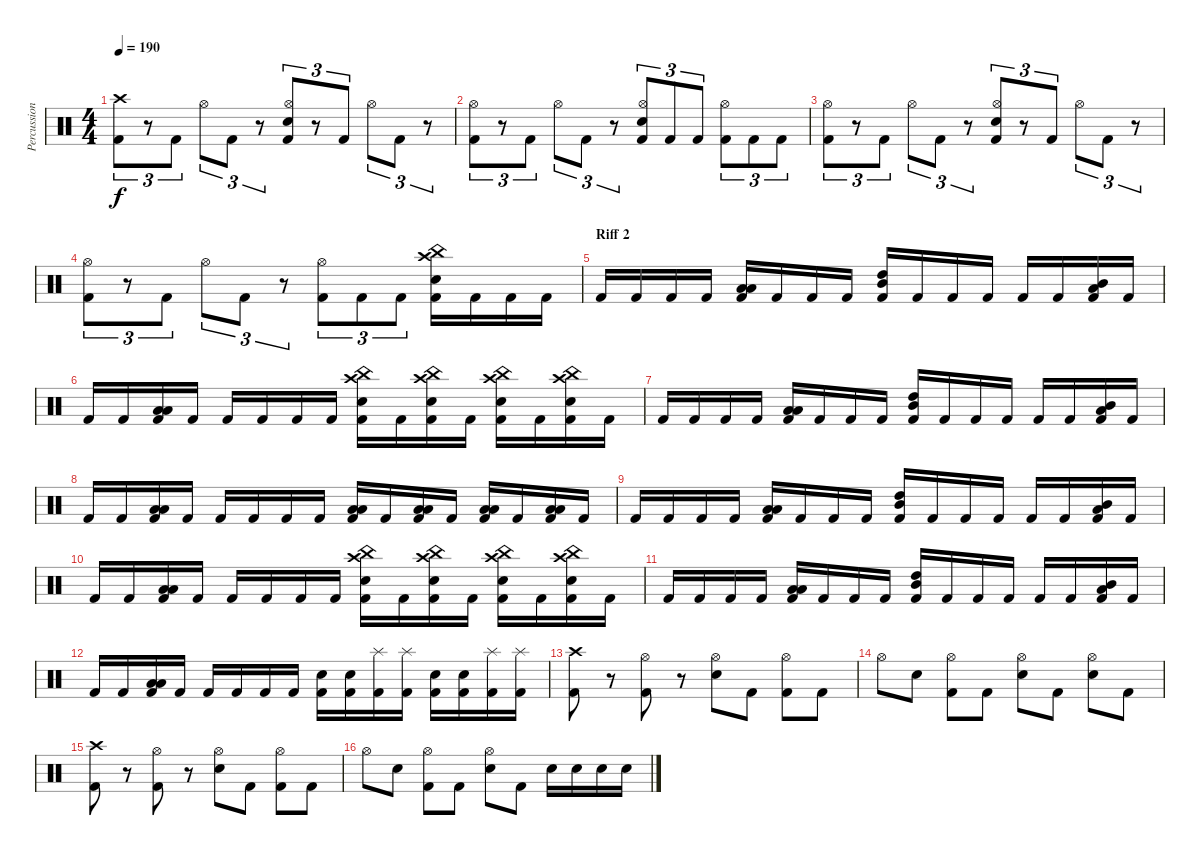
\track ("Percussion" "Percussion") {instrument percussion}
\staff {score}
\articulation defaults
\ts (4 4)
\tempo 190
\clef neutral
\ks c
("Crash high (hit)" "Kick (hit) 2").8{tu (3 2) dy f} r.8{tu (3 2)} "Kick (hit) 2".8{tu (3 2)} "Hi-Hat (open)".8{tu (3 2)} "Kick (hit) 2".8{tu (3 2)} r.8{tu (3 2)} ("Hi-Hat (open)" "Electric Snare (hit)" "Kick (hit) 2").8{tu (3 2)} r.8{tu (3 2)} "Kick (hit) 2".8{tu (3 2)} "Hi-Hat (open)".8{tu (3 2)} "Kick (hit) 2".8{tu (3 2)} r.8{tu (3 2)} |
("Hi-Hat (open)" "Kick (hit) 2").8{tu (3 2)} r.8{tu (3 2)} "Kick (hit) 2".8{tu (3 2)} "Hi-Hat (open)".8{tu (3 2)} "Kick (hit) 2".8{tu (3 2)} r.8{tu (3 2)} ("Hi-Hat (open)" "Electric Snare (hit)" "Kick (hit) 2").8{tu (3 2)} "Kick (hit) 2".8{tu (3 2)} "Kick (hit) 2".8{tu (3 2)} ("Hi-Hat (open)" "Kick (hit) 2").8{tu (3 2)} "Kick (hit) 2".8{tu (3 2)} "Kick (hit) 2".8{tu (3 2)} |
("Hi-Hat (open)" "Kick (hit) 2").8{tu (3 2)} r.8{tu (3 2)} "Kick (hit) 2".8{tu (3 2)} "Hi-Hat (open)".8{tu (3 2)} "Kick (hit) 2".8{tu (3 2)} r.8{tu (3 2)} ("Hi-Hat (open)" "Electric Snare (hit)" "Kick (hit) 2").8{tu (3 2)} r.8{tu (3 2)} "Kick (hit) 2".8{tu (3 2)} "Hi-Hat (open)".8{tu (3 2)} "Kick (hit) 2".8{tu (3 2)} r.8{tu (3 2)} |
("Hi-Hat (open)" "Kick (hit) 2").8{tu (3 2)} r.8{tu (3 2)} "Kick (hit) 2".8{tu (3 2)} "Hi-Hat (open)".8{tu (3 2)} "Kick (hit) 2".8{tu (3 2)} r.8{tu (3 2)} ("Hi-Hat (open)" "Kick (hit) 2").8{tu (3 2)} "Kick (hit) 2".8{tu (3 2)} "Kick (hit) 2".8{tu (3 2)} ("China (hit)" "Crash high (hit)" "Electric Snare (hit)" "Kick (hit) 2").16 "Kick (hit) 2".16 "Kick (hit) 2".16 "Kick (hit) 2".16 |
\section ("" "Riff 2")
"Kick (hit) 2".16 "Kick (hit) 2".16 "Kick (hit) 2".16 "Kick (hit) 2".16 ("Low Tom (hit)" "Low Floor Tom (hit)" "Kick (hit) 2").16 "Kick (hit) 2".16 "Kick (hit) 2".16 "Kick (hit) 2".16 ("High Tom (hit)" "Mid Tom (hit)" "Kick (hit) 2").16 "Kick (hit) 2".16 "Kick (hit) 2".16 "Kick (hit) 2".16 "Kick (hit) 2".16 "Kick (hit) 2".16 ("Mid Tom (hit)" "Low Tom (hit)" "Kick (hit) 2").16 "Kick (hit) 2".16 |
"Kick (hit) 2".16 "Kick (hit) 2".16 ("Low Tom (hit)" "Low Floor Tom (hit)" "Kick (hit) 2").16 "Kick (hit) 2".16 "Kick (hit) 2".16 "Kick (hit) 2".16 "Kick (hit) 2".16 "Kick (hit) 2".16 ("China (hit)" "Crash high (hit)" "Electric Snare (hit)" "Kick (hit) 2").16 "Kick (hit) 2".16 ("China (hit)" "Crash high (hit)" "Electric Snare (hit)" "Kick (hit) 2").16 "Kick (hit) 2".16 ("China (hit)" "Crash high (hit)" "Electric Snare (hit)" "Kick (hit) 2").16 "Kick (hit) 2".16 ("China (hit)" "Crash high (hit)" "Electric Snare (hit)" "Kick (hit) 2").16 "Kick (hit) 2".16 |
"Kick (hit) 2".16 "Kick (hit) 2".16 "Kick (hit) 2".16 "Kick (hit) 2".16 ("Low Tom (hit)" "Low Floor Tom (hit)" "Kick (hit) 2").16 "Kick (hit) 2".16 "Kick (hit) 2".16 "Kick (hit) 2".16 ("High Tom (hit)" "Mid Tom (hit)" "Kick (hit) 2").16 "Kick (hit) 2".16 "Kick (hit) 2".16 "Kick (hit) 2".16 "Kick (hit) 2".16 "Kick (hit) 2".16 ("Mid Tom (hit)" "Low Tom (hit)" "Kick (hit) 2").16 "Kick (hit) 2".16 |
"Kick (hit) 2".16 "Kick (hit) 2".16 ("Low Tom (hit)" "Low Floor Tom (hit)" "Kick (hit) 2").16 "Kick (hit) 2".16 "Kick (hit) 2".16 "Kick (hit) 2".16 "Kick (hit) 2".16 "Kick (hit) 2".16 ("Low Tom (hit)" "Low Floor Tom (hit)" "Kick (hit) 2").16 "Kick (hit) 2".16 ("Low Tom (hit)" "Low Floor Tom (hit)" "Kick (hit) 2").16 "Kick (hit) 2".16 ("Low Tom (hit)" "Low Floor Tom (hit)" "Kick (hit) 2").16 "Kick (hit) 2".16 ("Low Tom (hit)" "Low Floor Tom (hit)" "Kick (hit) 2").16 "Kick (hit) 2".16 |
"Kick (hit) 2".16 "Kick (hit) 2".16 "Kick (hit) 2".16 "Kick (hit) 2".16 ("Low Tom (hit)" "Low Floor Tom (hit)" "Kick (hit) 2").16 "Kick (hit) 2".16 "Kick (hit) 2".16 "Kick (hit) 2".16 ("High Tom (hit)" "Mid Tom (hit)" "Kick (hit) 2").16 "Kick (hit) 2".16 "Kick (hit) 2".16 "Kick (hit) 2".16 "Kick (hit) 2".16 "Kick (hit) 2".16 ("Mid Tom (hit)" "Low Tom (hit)" "Kick (hit) 2").16 "Kick (hit) 2".16 |
"Kick (hit) 2".16 "Kick (hit) 2".16 ("Low Tom (hit)" "Low Floor Tom (hit)" "Kick (hit) 2").16 "Kick (hit) 2".16 "Kick (hit) 2".16 "Kick (hit) 2".16 "Kick (hit) 2".16 "Kick (hit) 2".16 ("China (hit)" "Crash high (hit)" "Electric Snare (hit)" "Kick (hit) 2").16 "Kick (hit) 2".16 ("China (hit)" "Crash high (hit)" "Electric Snare (hit)" "Kick (hit) 2").16 "Kick (hit) 2".16 ("China (hit)" "Crash high (hit)" "Electric Snare (hit)" "Kick (hit) 2").16 "Kick (hit) 2".16 ("China (hit)" "Crash high (hit)" "Electric Snare (hit)" "Kick (hit) 2").16 "Kick (hit) 2".16 |
"Kick (hit) 2".16 "Kick (hit) 2".16 "Kick (hit) 2".16 "Kick (hit) 2".16 ("Low Tom (hit)" "Low Floor Tom (hit)" "Kick (hit) 2").16 "Kick (hit) 2".16 "Kick (hit) 2".16 "Kick (hit) 2".16 ("High Tom (hit)" "Mid Tom (hit)" "Kick (hit) 2").16 "Kick (hit) 2".16 "Kick (hit) 2".16 "Kick (hit) 2".16 "Kick (hit) 2".16 "Kick (hit) 2".16 ("Mid Tom (hit)" "Low Tom (hit)" "Kick (hit) 2").16 "Kick (hit) 2".16 |
"Kick (hit) 2".16 "Kick (hit) 2".16 ("Low Tom (hit)" "Low Floor Tom (hit)" "Kick (hit) 2").16 "Kick (hit) 2".16 "Kick (hit) 2".16 "Kick (hit) 2".16 "Kick (hit) 2".16 "Kick (hit) 2".16 ("Electric Snare (hit)" "Kick (hit) 2").16 ("Electric Snare (hit)" "Kick (hit) 2").16 ("Splash (hit)" "Kick (hit) 2").16 ("Splash (hit)" "Kick (hit) 2").16 ("Electric Snare (hit)" "Kick (hit) 2").16 ("Electric Snare (hit)" "Kick (hit) 2").16 ("Splash (hit)" "Kick (hit) 2").16 ("Splash (hit)" "Kick (hit) 2").16 |
("Crash high (hit)" "Kick (hit) 2").8 r.8 ("Hi-Hat (open)" "Kick (hit) 2").8 r.8 ("Hi-Hat (open)" "Electric Snare (hit)").8 "Kick (hit) 2".8 ("Hi-Hat (open)" "Kick (hit) 2").8 "Kick (hit) 2".8 |
"Hi-Hat (open)".8 "Electric Snare (hit)".8 ("Hi-Hat (open)" "Kick (hit) 2").8 "Kick (hit) 2".8 ("Hi-Hat (open)" "Electric Snare (hit)").8 "Kick (hit) 2".8 ("Hi-Hat (open)" "Electric Snare (hit)").8 "Kick (hit) 2".8 |
("Crash high (hit)" "Kick (hit) 2").8 r.8 ("Hi-Hat (open)" "Kick (hit) 2").8 r.8 ("Hi-Hat (open)" "Electric Snare (hit)").8 "Kick (hit) 2".8 ("Hi-Hat (open)" "Kick (hit) 2").8 "Kick (hit) 2".8 |
"Hi-Hat (open)".8 "Electric Snare (hit)".8 ("Hi-Hat (open)" "Kick (hit) 2").8 "Kick (hit) 2".8 ("Hi-Hat (open)" "Electric Snare (hit)").8 "Kick (hit) 2".8 "Electric Snare (hit)".16 "Electric Snare (hit)".16 "Electric Snare (hit)".16 "Electric Snare (hit)".16
